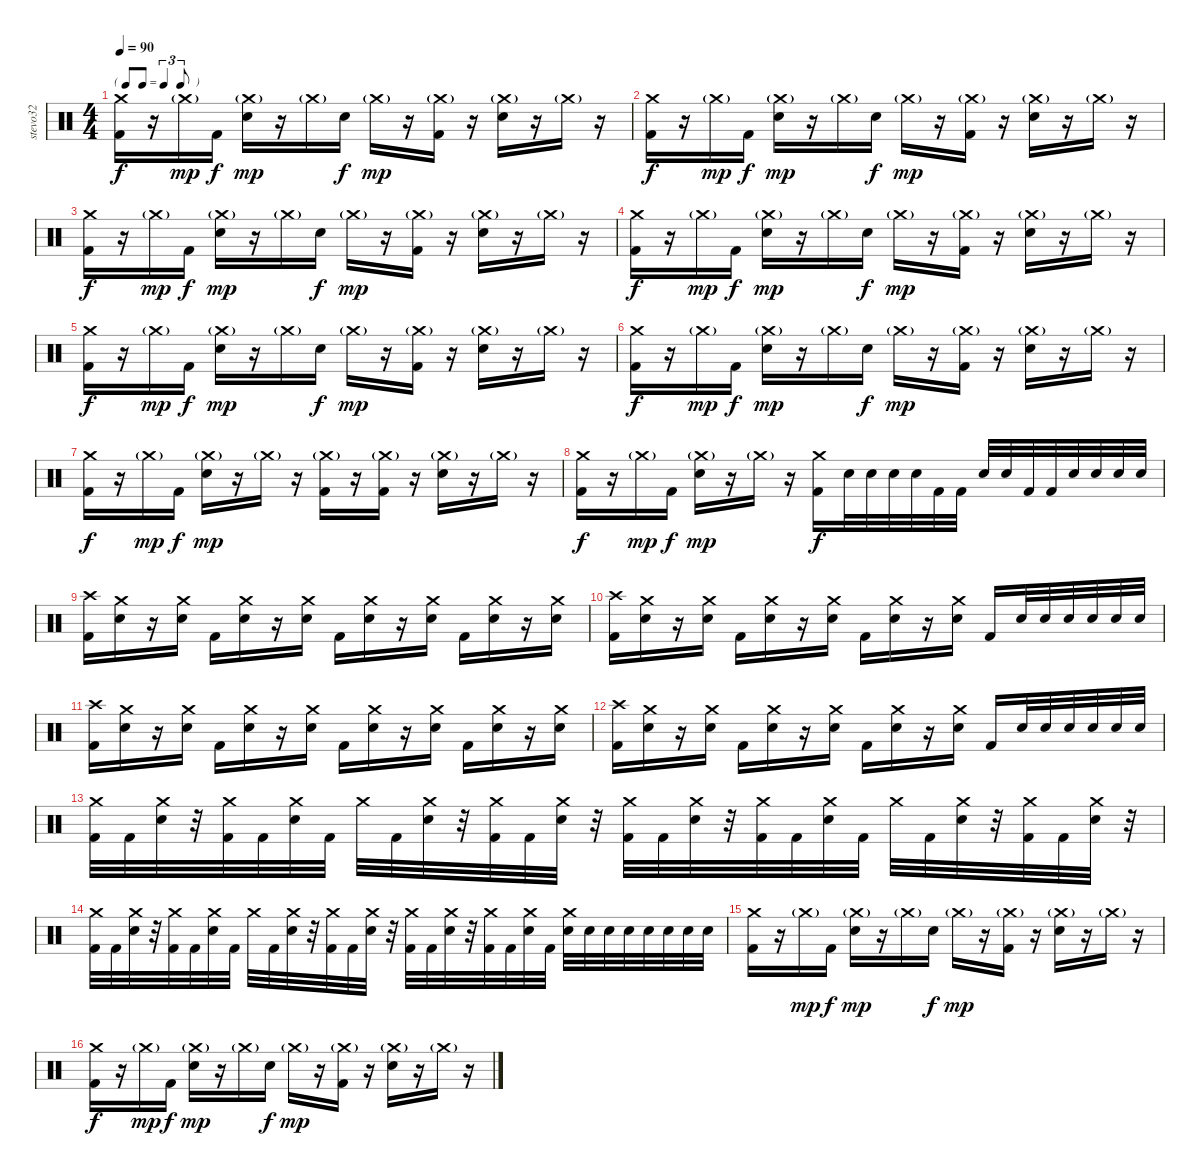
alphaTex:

\track ("stevo32" "stevo32") {instrument percussion}
\staff {score}
\articulation defaults
\ts (4 4)
\tf triplet8th
\tempo 90
\clef neutral
\ks c
("Crash medium (hit)" "Kick (hit) 2").16{dy f} r.16 "Crash medium (hit)"{g}.16{dy mp} "Kick (hit) 2".16{dy f} ("Crash medium (hit)"{g} "Electric Snare (hit)").16{dy mp} r.16 "Crash medium (hit)"{g}.16 "Electric Snare (hit)".16{dy f} "Crash medium (hit)"{g}.16{dy mp} r.16 ("Crash medium (hit)"{g} "Kick (hit) 2").16 r.16 ("Crash medium (hit)"{g} "Electric Snare (hit)").16 r.16 "Crash medium (hit)"{g}.16 r.16 |
("Crash medium (hit)" "Kick (hit) 2").16{dy f} r.16 "Crash medium (hit)"{g}.16{dy mp} "Kick (hit) 2".16{dy f} ("Crash medium (hit)"{g} "Electric Snare (hit)").16{dy mp} r.16 "Crash medium (hit)"{g}.16 "Electric Snare (hit)".16{dy f} "Crash medium (hit)"{g}.16{dy mp} r.16 ("Crash medium (hit)"{g} "Kick (hit) 2").16 r.16 ("Crash medium (hit)"{g} "Electric Snare (hit)").16 r.16 "Crash medium (hit)"{g}.16 r.16 |
("Crash medium (hit)" "Kick (hit) 2").16{dy f} r.16 "Crash medium (hit)"{g}.16{dy mp} "Kick (hit) 2".16{dy f} ("Crash medium (hit)"{g} "Electric Snare (hit)").16{dy mp} r.16 "Crash medium (hit)"{g}.16 "Electric Snare (hit)".16{dy f} "Crash medium (hit)"{g}.16{dy mp} r.16 ("Crash medium (hit)"{g} "Kick (hit) 2").16 r.16 ("Crash medium (hit)"{g} "Electric Snare (hit)").16 r.16 "Crash medium (hit)"{g}.16 r.16 |
("Crash medium (hit)" "Kick (hit) 2").16{dy f} r.16 "Crash medium (hit)"{g}.16{dy mp} "Kick (hit) 2".16{dy f} ("Crash medium (hit)"{g} "Electric Snare (hit)").16{dy mp} r.16 "Crash medium (hit)"{g}.16 "Electric Snare (hit)".16{dy f} "Crash medium (hit)"{g}.16{dy mp} r.16 ("Crash medium (hit)"{g} "Kick (hit) 2").16 r.16 ("Crash medium (hit)"{g} "Electric Snare (hit)").16 r.16 "Crash medium (hit)"{g}.16 r.16 |
("Crash medium (hit)" "Kick (hit) 2").16{dy f} r.16 "Crash medium (hit)"{g}.16{dy mp} "Kick (hit) 2".16{dy f} ("Crash medium (hit)"{g} "Electric Snare (hit)").16{dy mp} r.16 "Crash medium (hit)"{g}.16 "Electric Snare (hit)".16{dy f} "Crash medium (hit)"{g}.16{dy mp} r.16 ("Crash medium (hit)"{g} "Kick (hit) 2").16 r.16 ("Crash medium (hit)"{g} "Electric Snare (hit)").16 r.16 "Crash medium (hit)"{g}.16 r.16 |
("Crash medium (hit)" "Kick (hit) 2").16{dy f} r.16 "Crash medium (hit)"{g}.16{dy mp} "Kick (hit) 2".16{dy f} ("Crash medium (hit)"{g} "Electric Snare (hit)").16{dy mp} r.16 "Crash medium (hit)"{g}.16 "Electric Snare (hit)".16{dy f} "Crash medium (hit)"{g}.16{dy mp} r.16 ("Crash medium (hit)"{g} "Kick (hit) 2").16 r.16 ("Crash medium (hit)"{g} "Electric Snare (hit)").16 r.16 "Crash medium (hit)"{g}.16 r.16 |
("Crash medium (hit)" "Kick (hit) 2").16{dy f} r.16 "Crash medium (hit)"{g}.16{dy mp} "Kick (hit) 2".16{dy f} ("Crash medium (hit)"{g} "Electric Snare (hit)").16{dy mp} r.16 "Crash medium (hit)"{g}.16 r.16 ("Crash medium (hit)"{g} "Kick (hit) 2").16 r.16 ("Crash medium (hit)"{g} "Kick (hit) 2").16 r.16 ("Crash medium (hit)"{g} "Electric Snare (hit)").16 r.16 "Crash medium (hit)"{g}.16 r.16 |
("Crash medium (hit)" "Kick (hit) 2").16{dy f} r.16 "Crash medium (hit)"{g}.16{dy mp} "Kick (hit) 2".16{dy f} ("Crash medium (hit)"{g} "Electric Snare (hit)").16{dy mp} r.16 "Crash medium (hit)"{g}.16 r.16 ("Crash medium (hit)" "Kick (hit) 2").16{dy f} "Electric Snare (hit)".32 "Electric Snare (hit)".32 "Electric Snare (hit)".32 "Electric Snare (hit)".32 "Kick (hit) 2".32 "Kick (hit) 2".32 "Electric Snare (hit)".32 "Electric Snare (hit)".32 "Kick (hit) 2".32 "Kick (hit) 2".32 "Electric Snare (hit)".32 "Electric Snare (hit)".32 "Electric Snare (hit)".32 "Electric Snare (hit)".32 |
("Crash high (hit)" "Kick (hit) 2").16 ("Crash medium (hit)" "Electric Snare (hit)").16 r.16 ("Crash medium (hit)" "Electric Snare (hit)").16 "Kick (hit) 2".16 ("Crash medium (hit)" "Electric Snare (hit)").16 r.16 ("Crash medium (hit)" "Electric Snare (hit)").16 "Kick (hit) 2".16 ("Crash medium (hit)" "Electric Snare (hit)").16 r.16 ("Crash medium (hit)" "Electric Snare (hit)").16 "Kick (hit) 2".16 ("Crash medium (hit)" "Electric Snare (hit)").16 r.16 ("Crash medium (hit)" "Electric Snare (hit)").16 |
("Crash high (hit)" "Kick (hit) 2").16 ("Crash medium (hit)" "Electric Snare (hit)").16 r.16 ("Crash medium (hit)" "Electric Snare (hit)").16 "Kick (hit) 2".16 ("Crash medium (hit)" "Electric Snare (hit)").16 r.16 ("Crash medium (hit)" "Electric Snare (hit)").16 "Kick (hit) 2".16 ("Crash medium (hit)" "Electric Snare (hit)").16 r.16 ("Crash medium (hit)" "Electric Snare (hit)").16 "Kick (hit) 2".16 "Electric Snare (hit)".32 "Electric Snare (hit)".32 "Electric Snare (hit)".32 "Electric Snare (hit)".32 "Electric Snare (hit)".32 "Electric Snare (hit)".32 |
("Crash high (hit)" "Kick (hit) 2").16 ("Crash medium (hit)" "Electric Snare (hit)").16 r.16 ("Crash medium (hit)" "Electric Snare (hit)").16 "Kick (hit) 2".16 ("Crash medium (hit)" "Electric Snare (hit)").16 r.16 ("Crash medium (hit)" "Electric Snare (hit)").16 "Kick (hit) 2".16 ("Crash medium (hit)" "Electric Snare (hit)").16 r.16 ("Crash medium (hit)" "Electric Snare (hit)").16 "Kick (hit) 2".16 ("Crash medium (hit)" "Electric Snare (hit)").16 r.16 ("Crash medium (hit)" "Electric Snare (hit)").16 |
("Crash high (hit)" "Kick (hit) 2").16 ("Crash medium (hit)" "Electric Snare (hit)").16 r.16 ("Crash medium (hit)" "Electric Snare (hit)").16 "Kick (hit) 2".16 ("Crash medium (hit)" "Electric Snare (hit)").16 r.16 ("Crash medium (hit)" "Electric Snare (hit)").16 "Kick (hit) 2".16 ("Crash medium (hit)" "Electric Snare (hit)").16 r.16 ("Crash medium (hit)" "Electric Snare (hit)").16 "Kick (hit) 2".16 "Electric Snare (hit)".32 "Electric Snare (hit)".32 "Electric Snare (hit)".32 "Electric Snare (hit)".32 "Electric Snare (hit)".32 "Electric Snare (hit)".32 |
("Crash medium (hit)" "Kick (hit) 2").32 "Kick (hit) 2".32 ("Crash medium (hit)" "Electric Snare (hit)").32 r.32 ("Crash medium (hit)" "Kick (hit) 2").32 "Kick (hit) 2".32 ("Crash medium (hit)" "Electric Snare (hit)").32 "Kick (hit) 2".32 "Crash medium (hit)".32 "Kick (hit) 2".32 ("Crash medium (hit)" "Electric Snare (hit)").32 r.32 ("Crash medium (hit)" "Kick (hit) 2").32 "Kick (hit) 2".32 ("Crash medium (hit)" "Electric Snare (hit)").32 r.32 ("Crash medium (hit)" "Kick (hit) 2").32 "Kick (hit) 2".32 ("Crash medium (hit)" "Electric Snare (hit)").32 r.32 ("Crash medium (hit)" "Kick (hit) 2").32 "Kick (hit) 2".32 ("Crash medium (hit)" "Electric Snare (hit)").32 "Kick (hit) 2".32 "Crash medium (hit)".32 "Kick (hit) 2".32 ("Crash medium (hit)" "Electric Snare (hit)").32 r.32 ("Crash medium (hit)" "Kick (hit) 2").32 "Kick (hit) 2".32 ("Crash medium (hit)" "Electric Snare (hit)").32 r.32 |
("Crash medium (hit)" "Kick (hit) 2").32 "Kick (hit) 2".32 ("Crash medium (hit)" "Electric Snare (hit)").32 r.32 ("Crash medium (hit)" "Kick (hit) 2").32 "Kick (hit) 2".32 ("Crash medium (hit)" "Electric Snare (hit)").32 "Kick (hit) 2".32 "Crash medium (hit)".32 "Kick (hit) 2".32 ("Crash medium (hit)" "Electric Snare (hit)").32 r.32 ("Crash medium (hit)" "Kick (hit) 2").32 "Kick (hit) 2".32 ("Crash medium (hit)" "Electric Snare (hit)").32 r.32 ("Crash medium (hit)" "Kick (hit) 2").32 "Kick (hit) 2".32 ("Crash medium (hit)" "Electric Snare (hit)").32 r.32 ("Crash medium (hit)" "Kick (hit) 2").32 "Kick (hit) 2".32 ("Crash medium (hit)" "Electric Snare (hit)").32 "Kick (hit) 2".32 ("Crash medium (hit)" "Electric Snare (hit)").32 "Electric Snare (hit)".32 "Electric Snare (hit)".32 "Electric Snare (hit)".32 "Electric Snare (hit)".32 "Electric Snare (hit)".32 "Electric Snare (hit)".32 "Electric Snare (hit)".32 |
("Crash medium (hit)" "Kick (hit) 2").16 r.16 "Crash medium (hit)"{g}.16{dy mp} "Kick (hit) 2".16{dy f} ("Crash medium (hit)"{g} "Electric Snare (hit)").16{dy mp} r.16 "Crash medium (hit)"{g}.16 "Electric Snare (hit)".16{dy f} "Crash medium (hit)"{g}.16{dy mp} r.16 ("Crash medium (hit)"{g} "Kick (hit) 2").16 r.16 ("Crash medium (hit)"{g} "Electric Snare (hit)").16 r.16 "Crash medium (hit)"{g}.16 r.16 |
("Crash medium (hit)" "Kick (hit) 2").16{dy f} r.16 "Crash medium (hit)"{g}.16{dy mp} "Kick (hit) 2".16{dy f} ("Crash medium (hit)"{g} "Electric Snare (hit)").16{dy mp} r.16 "Crash medium (hit)"{g}.16 "Electric Snare (hit)".16{dy f} "Crash medium (hit)"{g}.16{dy mp} r.16 ("Crash medium (hit)"{g} "Kick (hit) 2").16 r.16 ("Crash medium (hit)"{g} "Electric Snare (hit)").16 r.16 "Crash medium (hit)"{g}.16 r.16
